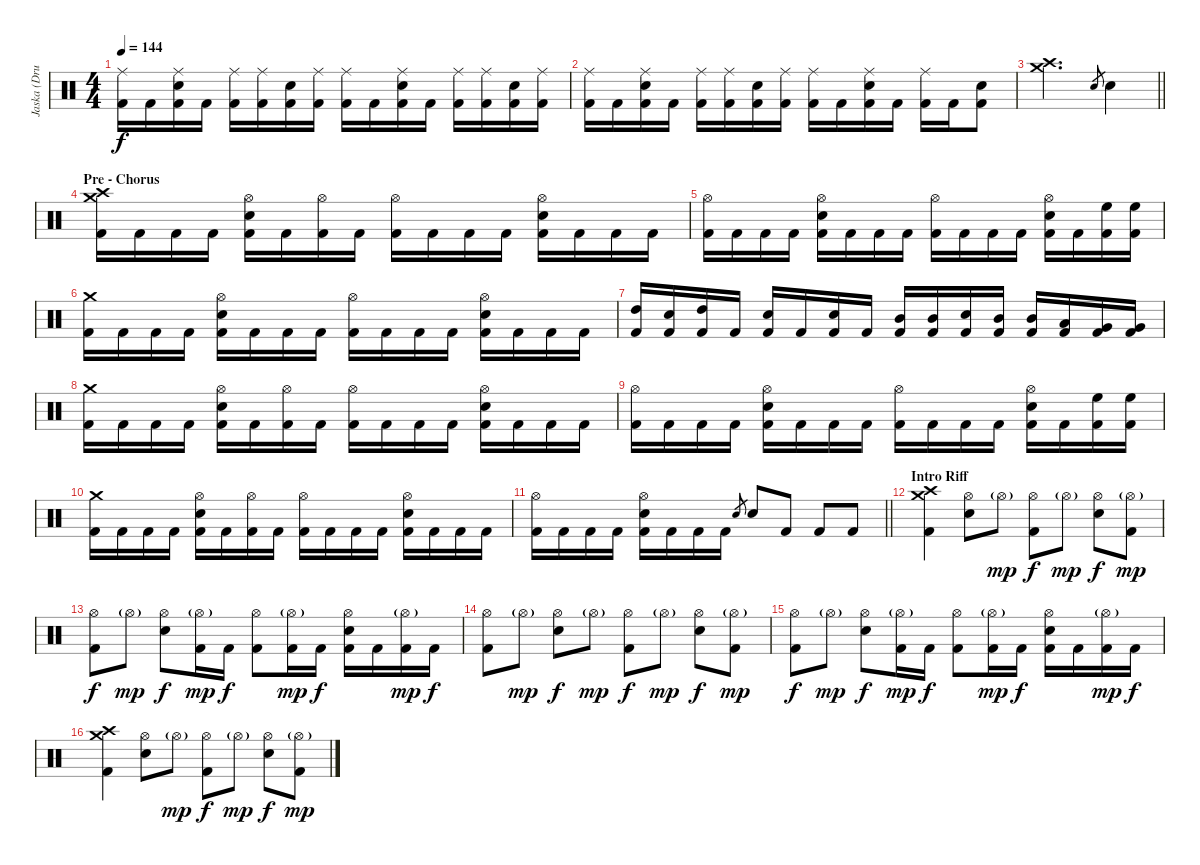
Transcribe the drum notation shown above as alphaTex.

\track ("Jaska (Drums)" "Jaska (Dru") {instrument percussion}
\staff {score}
\articulation defaults
\ts (4 4)
\tempo 144
\clef neutral
\ks c
("Ride (middle)" "Kick (hit) 2").16{dy f} "Kick (hit) 2".16 ("Ride (middle)" "Electric Snare (hit)" "Kick (hit) 2").16 "Kick (hit) 2".16 ("Ride (middle)" "Kick (hit) 2").16 ("Ride (middle)" "Kick (hit) 2").16 ("Electric Snare (hit)" "Kick (hit) 2").16 ("Ride (middle)" "Kick (hit) 2").16 ("Ride (middle)" "Kick (hit) 2").16 "Kick (hit) 2".16 ("Ride (middle)" "Electric Snare (hit)" "Kick (hit) 2").16 "Kick (hit) 2".16 ("Ride (middle)" "Kick (hit) 2").16 ("Ride (middle)" "Kick (hit) 2").16 ("Electric Snare (hit)" "Kick (hit) 2").16 ("Ride (middle)" "Kick (hit) 2").16 |
("Ride (middle)" "Kick (hit) 2").16 "Kick (hit) 2".16 ("Ride (middle)" "Electric Snare (hit)" "Kick (hit) 2").16 "Kick (hit) 2".16 ("Ride (middle)" "Kick (hit) 2").16 ("Ride (middle)" "Kick (hit) 2").16 ("Electric Snare (hit)" "Kick (hit) 2").16 ("Ride (middle)" "Kick (hit) 2").16 ("Ride (middle)" "Kick (hit) 2").16 "Kick (hit) 2".16 ("Ride (middle)" "Electric Snare (hit)" "Kick (hit) 2").16 "Kick (hit) 2".16 ("Ride (middle)" "Kick (hit) 2").16 "Kick (hit) 2".16 ("Electric Snare (hit)" "Kick (hit) 2").8 |
\barLineRight lightlight
("Crash medium (hit)" "Crash high (hit)").2{d} "Electric Snare (hit)".8{gr} "Electric Snare (hit)".4 |
\section ("" "Pre - Chorus")
("Crash medium (hit)" "Crash high (hit)" "Kick (hit) 2").16 "Kick (hit) 2".16 "Kick (hit) 2".16 "Kick (hit) 2".16 ("Hi-Hat (open)" "Electric Snare (hit)" "Kick (hit) 2").16 "Kick (hit) 2".16 ("Hi-Hat (open)" "Kick (hit) 2").16 "Kick (hit) 2".16 ("Hi-Hat (open)" "Kick (hit) 2").16 "Kick (hit) 2".16 "Kick (hit) 2".16 "Kick (hit) 2".16 ("Hi-Hat (open)" "Electric Snare (hit)" "Kick (hit) 2").16 "Kick (hit) 2".16 "Kick (hit) 2".16 "Kick (hit) 2".16 |
("Hi-Hat (open)" "Kick (hit) 2").16 "Kick (hit) 2".16 "Kick (hit) 2".16 "Kick (hit) 2".16 ("Hi-Hat (open)" "Electric Snare (hit)" "Kick (hit) 2").16 "Kick (hit) 2".16 "Kick (hit) 2".16 "Kick (hit) 2".16 ("Hi-Hat (open)" "Kick (hit) 2").16 "Kick (hit) 2".16 "Kick (hit) 2".16 "Kick (hit) 2".16 ("Hi-Hat (open)" "Electric Snare (hit)" "Kick (hit) 2").16 "Kick (hit) 2".16 ("High Floor Tom (hit)" "Kick (hit) 2").16 ("High Floor Tom (hit)" "Kick (hit) 2").16 |
("Crash medium (hit)" "Kick (hit) 2").16 "Kick (hit) 2".16 "Kick (hit) 2".16 "Kick (hit) 2".16 ("Hi-Hat (open)" "Electric Snare (hit)" "Kick (hit) 2").16 "Kick (hit) 2".16 "Kick (hit) 2".16 "Kick (hit) 2".16 ("Hi-Hat (open)" "Kick (hit) 2").16 "Kick (hit) 2".16 "Kick (hit) 2".16 "Kick (hit) 2".16 ("Hi-Hat (open)" "Electric Snare (hit)" "Kick (hit) 2").16 "Kick (hit) 2".16 "Kick (hit) 2".16 "Kick (hit) 2".16 |
("High Tom (hit)" "Kick (hit) 2").16 ("Electric Snare (hit)" "Kick (hit) 2").16 ("High Tom (hit)" "Kick (hit) 2").16 "Kick (hit) 2".16 ("Electric Snare (hit)" "Kick (hit) 2").16 "Kick (hit) 2".16 ("Electric Snare (hit)" "Kick (hit) 2").16 "Kick (hit) 2".16 ("Mid Tom (hit)" "Kick (hit) 2").16 ("Mid Tom (hit)" "Kick (hit) 2").16 ("Electric Snare (hit)" "Kick (hit) 2").16 ("Mid Tom (hit)" "Kick (hit) 2").16 ("Mid Tom (hit)" "Kick (hit) 2").16 ("Low Tom (hit)" "Kick (hit) 2").16 ("Very Low Tom (hit)" "Kick (hit) 2").16 ("Very Low Tom (hit)" "Kick (hit) 2").16 |
("Crash medium (hit)" "Kick (hit) 2").16 "Kick (hit) 2".16 "Kick (hit) 2".16 "Kick (hit) 2".16 ("Hi-Hat (open)" "Electric Snare (hit)" "Kick (hit) 2").16 "Kick (hit) 2".16 ("Hi-Hat (open)" "Kick (hit) 2").16 "Kick (hit) 2".16 ("Hi-Hat (open)" "Kick (hit) 2").16 "Kick (hit) 2".16 "Kick (hit) 2".16 "Kick (hit) 2".16 ("Hi-Hat (open)" "Electric Snare (hit)" "Kick (hit) 2").16 "Kick (hit) 2".16 "Kick (hit) 2".16 "Kick (hit) 2".16 |
("Hi-Hat (open)" "Kick (hit) 2").16 "Kick (hit) 2".16 "Kick (hit) 2".16 "Kick (hit) 2".16 ("Hi-Hat (open)" "Electric Snare (hit)" "Kick (hit) 2").16 "Kick (hit) 2".16 "Kick (hit) 2".16 "Kick (hit) 2".16 ("Hi-Hat (open)" "Kick (hit) 2").16 "Kick (hit) 2".16 "Kick (hit) 2".16 "Kick (hit) 2".16 ("Hi-Hat (open)" "Electric Snare (hit)" "Kick (hit) 2").16 "Kick (hit) 2".16 ("High Floor Tom (hit)" "Kick (hit) 2").16 ("High Floor Tom (hit)" "Kick (hit) 2").16 |
("Crash medium (hit)" "Kick (hit) 2").16 "Kick (hit) 2".16 "Kick (hit) 2".16 "Kick (hit) 2".16 ("Hi-Hat (open)" "Electric Snare (hit)" "Kick (hit) 2").16 "Kick (hit) 2".16 ("Hi-Hat (open)" "Kick (hit) 2").16 "Kick (hit) 2".16 ("Hi-Hat (open)" "Kick (hit) 2").16 "Kick (hit) 2".16 "Kick (hit) 2".16 "Kick (hit) 2".16 ("Hi-Hat (open)" "Electric Snare (hit)" "Kick (hit) 2").16 "Kick (hit) 2".16 "Kick (hit) 2".16 "Kick (hit) 2".16 |
\barLineRight lightlight
("Hi-Hat (open)" "Kick (hit) 2").16 "Kick (hit) 2".16 "Kick (hit) 2".16 "Kick (hit) 2".16 ("Hi-Hat (open)" "Electric Snare (hit)" "Kick (hit) 2").16 "Kick (hit) 2".16 "Kick (hit) 2".16 "Kick (hit) 2".16 "Electric Snare (hit)".8{gr} "Electric Snare (hit)".8 "Kick (hit) 2".8 "Kick (hit) 2".8 "Kick (hit) 2".8 |
\section ("" "Intro Riff")
("Crash medium (hit)" "Crash high (hit)" "Kick (hit) 2").4{volume 16 balance 8} ("Hi-Hat (open)" "Electric Snare (hit)").8 "Hi-Hat (open)"{g}.8{dy mp} ("Hi-Hat (open)" "Kick (hit) 2").8{dy f} "Hi-Hat (open)"{g}.8{dy mp} ("Hi-Hat (open)" "Electric Snare (hit)").8{dy f} ("Hi-Hat (open)"{g} "Kick (hit) 2").8{dy mp} |
("Hi-Hat (open)" "Kick (hit) 2").8{dy f} "Hi-Hat (open)"{g}.8{dy mp} ("Hi-Hat (open)" "Electric Snare (hit)").8{dy f} ("Hi-Hat (open)"{g} "Kick (hit) 2").16{dy mp} "Kick (hit) 2".16{dy f} ("Hi-Hat (open)" "Kick (hit) 2").8 ("Hi-Hat (open)"{g} "Kick (hit) 2").16{dy mp} "Kick (hit) 2".16{dy f} ("Hi-Hat (open)" "Electric Snare (hit)" "Kick (hit) 2").16 "Kick (hit) 2".16 ("Hi-Hat (open)"{g} "Kick (hit) 2").16{dy mp} "Kick (hit) 2".16{dy f} |
("Hi-Hat (open)" "Kick (hit) 2").8 "Hi-Hat (open)"{g}.8{dy mp} ("Hi-Hat (open)" "Electric Snare (hit)").8{dy f} "Hi-Hat (open)"{g}.8{dy mp} ("Hi-Hat (open)" "Kick (hit) 2").8{dy f} "Hi-Hat (open)"{g}.8{dy mp} ("Hi-Hat (open)" "Electric Snare (hit)").8{dy f} ("Hi-Hat (open)"{g} "Kick (hit) 2").8{dy mp} |
("Hi-Hat (open)" "Kick (hit) 2").8{dy f} "Hi-Hat (open)"{g}.8{dy mp} ("Hi-Hat (open)" "Electric Snare (hit)").8{dy f} ("Hi-Hat (open)"{g} "Kick (hit) 2").16{dy mp} "Kick (hit) 2".16{dy f} ("Hi-Hat (open)" "Kick (hit) 2").8 ("Hi-Hat (open)"{g} "Kick (hit) 2").16{dy mp} "Kick (hit) 2".16{dy f} ("Hi-Hat (open)" "Electric Snare (hit)" "Kick (hit) 2").16 "Kick (hit) 2".16 ("Hi-Hat (open)"{g} "Kick (hit) 2").16{dy mp} "Kick (hit) 2".16{dy f} |
("Crash medium (hit)" "Crash high (hit)" "Kick (hit) 2").4 ("Hi-Hat (open)" "Electric Snare (hit)").8 "Hi-Hat (open)"{g}.8{dy mp} ("Hi-Hat (open)" "Kick (hit) 2").8{dy f} "Hi-Hat (open)"{g}.8{dy mp} ("Hi-Hat (open)" "Electric Snare (hit)").8{dy f} ("Hi-Hat (open)"{g} "Kick (hit) 2").8{dy mp}
